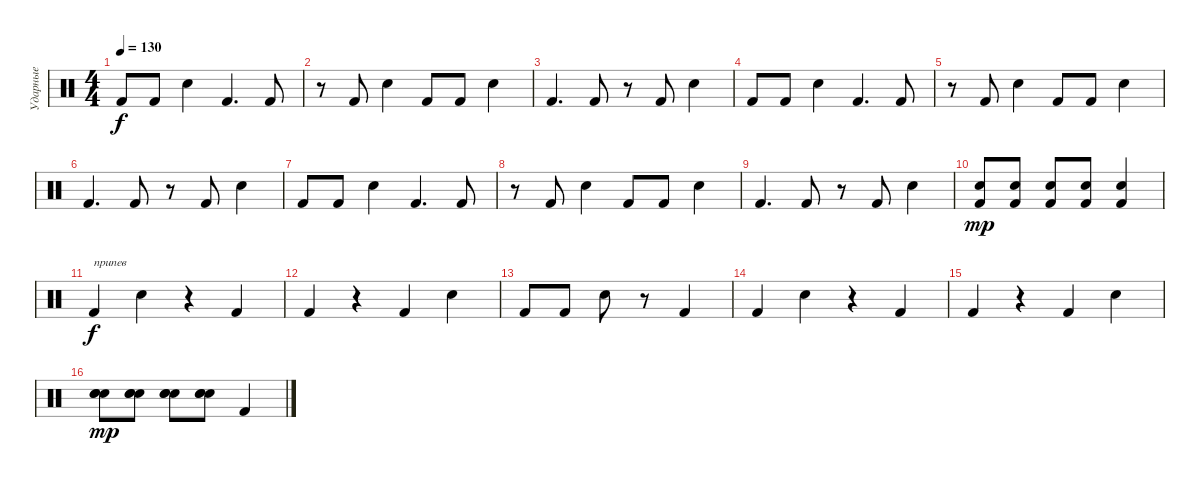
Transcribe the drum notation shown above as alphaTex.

\track ("Ударные" "Ударные") {instrument percussion}
\staff {score}
\articulation defaults
\ts (4 4)
\tempo 130
\clef neutral
\ks c "Kick (hit) 2".8{dy f} "Kick (hit) 2".8 "Electric Snare (hit)".4 "Kick (hit) 2".4{d} "Kick (hit) 2".8
|
r.8 "Kick (hit) 2".8 "Electric Snare (hit)".4 "Kick (hit) 2".8 "Kick (hit) 2".8 "Electric Snare (hit)".4 |
"Kick (hit) 2".4{d} "Kick (hit) 2".8 r.8 "Kick (hit) 2".8 "Electric Snare (hit)".4 |
"Kick (hit) 2".8 "Kick (hit) 2".8 "Electric Snare (hit)".4 "Kick (hit) 2".4{d} "Kick (hit) 2".8 |
r.8 "Kick (hit) 2".8 "Electric Snare (hit)".4 "Kick (hit) 2".8 "Kick (hit) 2".8 "Electric Snare (hit)".4 |
"Kick (hit) 2".4{d} "Kick (hit) 2".8 r.8 "Kick (hit) 2".8 "Electric Snare (hit)".4 |
"Kick (hit) 2".8 "Kick (hit) 2".8 "Electric Snare (hit)".4 "Kick (hit) 2".4{d} "Kick (hit) 2".8 |
r.8 "Kick (hit) 2".8 "Electric Snare (hit)".4 "Kick (hit) 2".8 "Kick (hit) 2".8 "Electric Snare (hit)".4 |
"Kick (hit) 2".4{d} "Kick (hit) 2".8 r.8 "Kick (hit) 2".8 "Electric Snare (hit)".4 |
("Kick (hit) 2" "Electric Snare (hit)").8{dy mp} ("Kick (hit) 2" "Electric Snare (hit)").8 ("Kick (hit) 2" "Electric Snare (hit)").8 ("Kick (hit) 2" "Electric Snare (hit)").8 ("Kick (hit) 2" "Electric Snare (hit)").4 |
"Kick (hit) 2".4{txt "припев" dy f} "Electric Snare (hit)".4 r.4 "Kick (hit) 2".4 |
"Kick (hit) 2".4 r.4 "Kick (hit) 2".4 "Electric Snare (hit)".4 |
"Kick (hit) 2".8 "Kick (hit) 2".8 "Electric Snare (hit)".8 r.8 "Kick (hit) 2".4 |
"Kick (hit) 2".4 "Electric Snare (hit)".4 r.4 "Kick (hit) 2".4 |
"Kick (hit) 2".4 r.4 "Kick (hit) 2".4 "Electric Snare (hit)".4 |
("Electric Snare (hit)" "Electric Snare (hit)" "Electric Snare (hit)").8{dy mp} ("Electric Snare (hit)" "Electric Snare (hit)" "Electric Snare (hit)").8 ("Electric Snare (hit)" "Electric Snare (hit)" "Electric Snare (hit)").8 ("Electric Snare (hit)" "Electric Snare (hit)" "Electric Snare (hit)").8 "Kick (hit) 2".4
